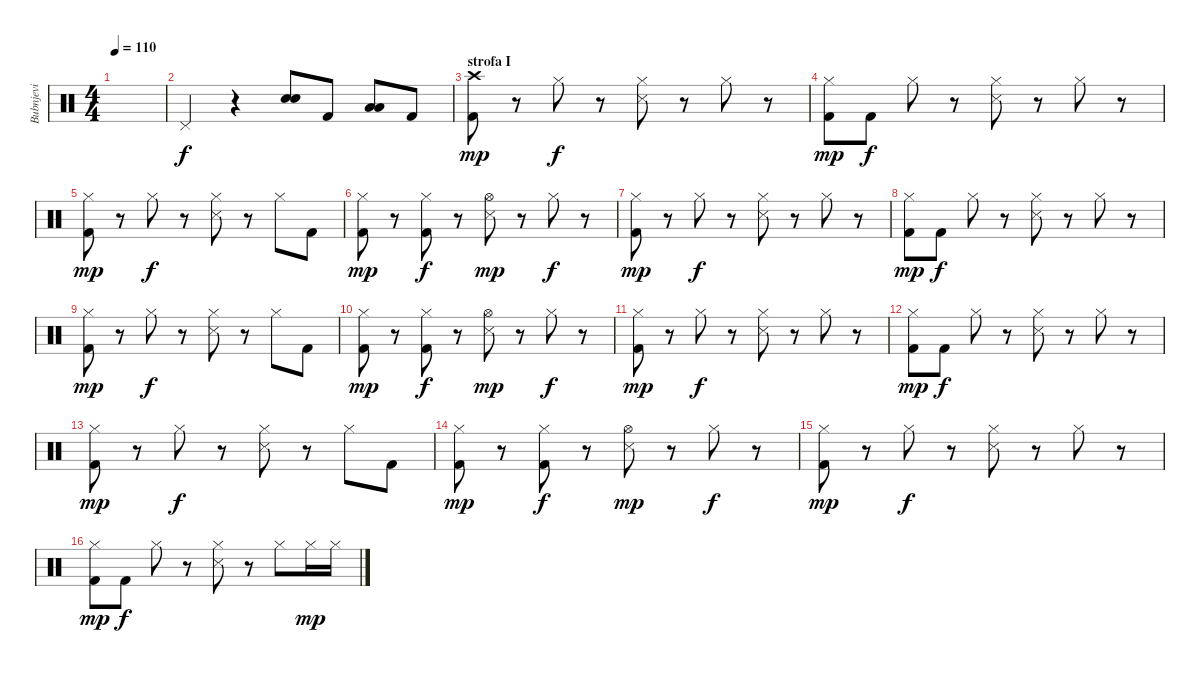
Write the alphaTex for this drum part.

\track ("Bubnjevi" "Bubnjevi") {instrument percussion}
\staff {score}
\articulation defaults
\ts (4 4)
\tempo 110
\clef neutral
\ks c
|
"Pedal Hi-Hat (hit)".4 r.4 ("Electric Snare (hit)" "Electric Snare (hit)").8{bd 120} "Kick (hit) 2".8 ("Low Tom (hit)" "Low Tom (hit)").8{bd 120} "Kick (hit) 2".8 |
\section ("" "strofa I")
("Crash high (hit)" "Kick (hit) 2").8{dy mp} r.8 "Hi-Hat (closed)".8{dy f} r.8 ("Hi-Hat (closed)" "Snare (side stick) 3").8 r.8 "Hi-Hat (closed)".8 r.8 |
("Hi-Hat (closed)" "Kick (hit) 2").8{dy mp} "Kick (hit) 2".8{dy f} "Hi-Hat (closed)".8 r.8 ("Hi-Hat (closed)" "Snare (side stick) 3").8 r.8 "Hi-Hat (closed)".8 r.8 |
("Hi-Hat (closed)" "Kick (hit) 2").8{dy mp} r.8 "Hi-Hat (closed)".8{dy f} r.8 ("Hi-Hat (closed)" "Snare (side stick) 3").8 r.8 "Hi-Hat (closed)".8 "Kick (hit) 2".8 |
("Hi-Hat (closed)" "Kick (hit) 2").8{dy mp} r.8 ("Hi-Hat (closed)" "Kick (hit) 2").8{dy f} r.8 ("Hi-Hat (open)" "Snare (side stick) 3").8{dy mp} r.8 "Hi-Hat (closed)".8{dy f} r.8 |
("Hi-Hat (closed)" "Kick (hit) 2").8{dy mp} r.8 "Hi-Hat (closed)".8{dy f} r.8 ("Hi-Hat (closed)" "Snare (side stick) 3").8 r.8 "Hi-Hat (closed)".8 r.8 |
("Hi-Hat (closed)" "Kick (hit) 2").8{dy mp} "Kick (hit) 2".8{dy f} "Hi-Hat (closed)".8 r.8 ("Hi-Hat (closed)" "Snare (side stick) 3").8 r.8 "Hi-Hat (closed)".8 r.8 |
("Hi-Hat (closed)" "Kick (hit) 2").8{dy mp} r.8 "Hi-Hat (closed)".8{dy f} r.8 ("Hi-Hat (closed)" "Snare (side stick) 3").8 r.8 "Hi-Hat (closed)".8 "Kick (hit) 2".8 |
("Hi-Hat (closed)" "Kick (hit) 2").8{dy mp} r.8 ("Hi-Hat (closed)" "Kick (hit) 2").8{dy f} r.8 ("Hi-Hat (open)" "Snare (side stick) 3").8{dy mp} r.8 "Hi-Hat (closed)".8{dy f} r.8 |
("Hi-Hat (closed)" "Kick (hit) 2").8{dy mp} r.8 "Hi-Hat (closed)".8{dy f} r.8 ("Hi-Hat (closed)" "Snare (side stick) 3").8 r.8 "Hi-Hat (closed)".8 r.8 |
("Hi-Hat (closed)" "Kick (hit) 2").8{dy mp} "Kick (hit) 2".8{dy f} "Hi-Hat (closed)".8 r.8 ("Hi-Hat (closed)" "Snare (side stick) 3").8 r.8 "Hi-Hat (closed)".8 r.8 |
("Hi-Hat (closed)" "Kick (hit) 2").8{dy mp} r.8 "Hi-Hat (closed)".8{dy f} r.8 ("Hi-Hat (closed)" "Snare (side stick) 3").8 r.8 "Hi-Hat (closed)".8 "Kick (hit) 2".8 |
("Hi-Hat (closed)" "Kick (hit) 2").8{dy mp} r.8 ("Hi-Hat (closed)" "Kick (hit) 2").8{dy f} r.8 ("Hi-Hat (open)" "Snare (side stick) 3").8{dy mp} r.8 "Hi-Hat (closed)".8{dy f} r.8 |
("Hi-Hat (closed)" "Kick (hit) 2").8{dy mp} r.8 "Hi-Hat (closed)".8{dy f} r.8 ("Hi-Hat (closed)" "Snare (side stick) 3").8 r.8 "Hi-Hat (closed)".8 r.8 |
("Hi-Hat (closed)" "Kick (hit) 2").8{dy mp} "Kick (hit) 2".8{dy f} "Hi-Hat (closed)".8 r.8 ("Hi-Hat (closed)" "Snare (side stick) 3").8 r.8 "Hi-Hat (closed)".8 "Hi-Hat (closed)".16{dy mp} "Hi-Hat (closed)".16
